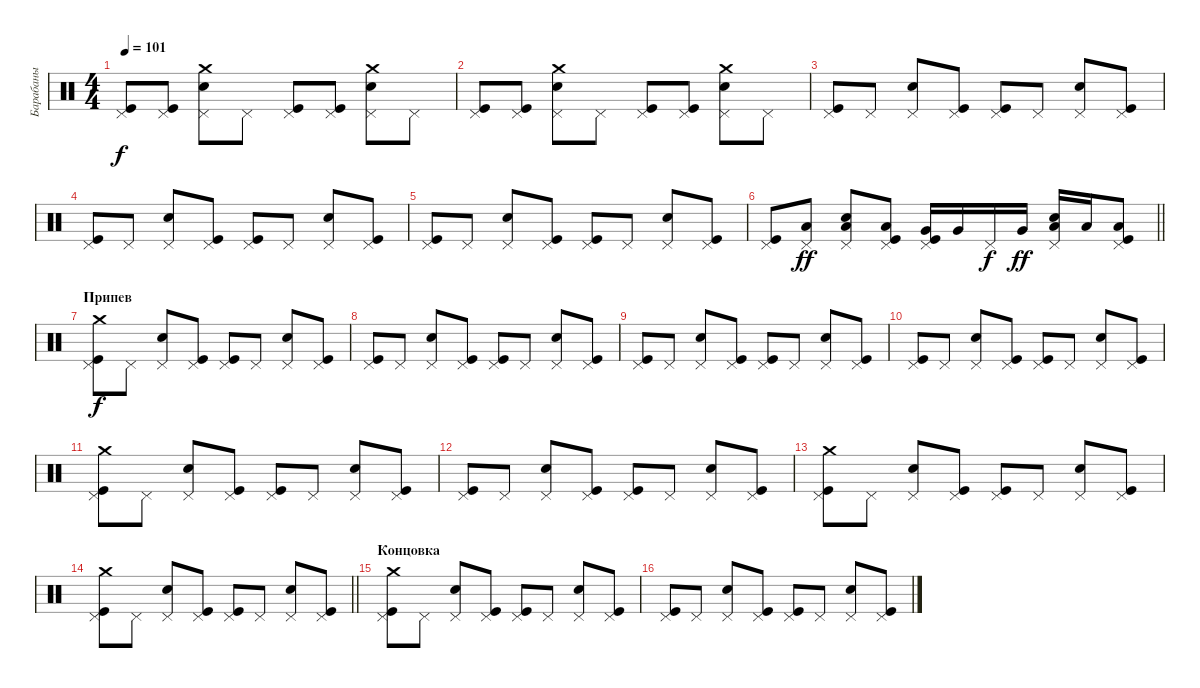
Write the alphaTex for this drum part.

\track ("Барабаны" "Барабаны") {instrument percussion}
\staff {score}
\articulation defaults
\ts (4 4)
\tempo 101
\clef neutral
\ks c
("Kick (hit)" "Pedal Hi-Hat (hit)").8{dy f} ("Kick (hit)" "Pedal Hi-Hat (hit)").8 ("Snare (hit) 2" "Pedal Hi-Hat (hit)" "Crash medium (hit)").8 "Pedal Hi-Hat (hit)".8 ("Kick (hit)" "Pedal Hi-Hat (hit)").8 ("Kick (hit)" "Pedal Hi-Hat (hit)").8 ("Snare (hit) 2" "Pedal Hi-Hat (hit)" "Crash medium (hit)").8 "Pedal Hi-Hat (hit)".8 |
("Kick (hit)" "Pedal Hi-Hat (hit)").8 ("Kick (hit)" "Pedal Hi-Hat (hit)").8 ("Snare (hit) 2" "Pedal Hi-Hat (hit)" "Crash medium (hit)").8 "Pedal Hi-Hat (hit)".8 ("Kick (hit)" "Pedal Hi-Hat (hit)").8 ("Kick (hit)" "Pedal Hi-Hat (hit)").8 ("Snare (hit) 2" "Pedal Hi-Hat (hit)" "Crash medium (hit)").8 "Pedal Hi-Hat (hit)".8 |
("Kick (hit)" "Pedal Hi-Hat (hit)").8 "Pedal Hi-Hat (hit)".8 ("Snare (hit) 2" "Pedal Hi-Hat (hit)").8 ("Kick (hit)" "Pedal Hi-Hat (hit)").8 ("Kick (hit)" "Pedal Hi-Hat (hit)").8 "Pedal Hi-Hat (hit)".8 ("Snare (hit) 2" "Pedal Hi-Hat (hit)").8 ("Kick (hit)" "Pedal Hi-Hat (hit)").8 |
("Kick (hit)" "Pedal Hi-Hat (hit)").8 "Pedal Hi-Hat (hit)".8 ("Snare (hit) 2" "Pedal Hi-Hat (hit)").8 ("Kick (hit)" "Pedal Hi-Hat (hit)").8 ("Kick (hit)" "Pedal Hi-Hat (hit)").8 "Pedal Hi-Hat (hit)".8 ("Snare (hit) 2" "Pedal Hi-Hat (hit)").8 ("Kick (hit)" "Pedal Hi-Hat (hit)").8 |
("Kick (hit)" "Pedal Hi-Hat (hit)").8 "Pedal Hi-Hat (hit)".8 ("Snare (hit) 2" "Pedal Hi-Hat (hit)").8 ("Kick (hit)" "Pedal Hi-Hat (hit)").8 ("Kick (hit)" "Pedal Hi-Hat (hit)").8 "Pedal Hi-Hat (hit)".8 ("Snare (hit) 2" "Pedal Hi-Hat (hit)").8 ("Kick (hit)" "Pedal Hi-Hat (hit)").8 |
\barLineRight lightlight
("Kick (hit)" "Pedal Hi-Hat (hit)").8 ("Pedal Hi-Hat (hit)" "Low Tom (hit)").8{dy ff} ("Snare (hit) 2" "Pedal Hi-Hat (hit)" "Low Tom (hit)").8 ("Kick (hit)" "Pedal Hi-Hat (hit)" "Low Tom (hit)").8 ("Kick (hit)" "Pedal Hi-Hat (hit)" "Very Low Tom (hit)").16 "Very Low Tom (hit)".16 "Pedal Hi-Hat (hit)".16{dy f} "Very Low Tom (hit)".16{dy ff} ("Snare (hit) 2" "Pedal Hi-Hat (hit)" "Low Tom (hit)").16 "Low Tom (hit)".16 ("Kick (hit)" "Pedal Hi-Hat (hit)" "Low Tom (hit)").8 |
\section ("" "Припев")
("Kick (hit)" "Pedal Hi-Hat (hit)" "Crash medium (hit)").8{dy f} "Pedal Hi-Hat (hit)".8 ("Snare (hit) 2" "Pedal Hi-Hat (hit)").8 ("Kick (hit)" "Pedal Hi-Hat (hit)").8 ("Kick (hit)" "Pedal Hi-Hat (hit)").8 "Pedal Hi-Hat (hit)".8 ("Snare (hit) 2" "Pedal Hi-Hat (hit)").8 ("Kick (hit)" "Pedal Hi-Hat (hit)").8 |
("Kick (hit)" "Pedal Hi-Hat (hit)").8 "Pedal Hi-Hat (hit)".8 ("Snare (hit) 2" "Pedal Hi-Hat (hit)").8 ("Kick (hit)" "Pedal Hi-Hat (hit)").8 ("Kick (hit)" "Pedal Hi-Hat (hit)").8 "Pedal Hi-Hat (hit)".8 ("Snare (hit) 2" "Pedal Hi-Hat (hit)").8 ("Kick (hit)" "Pedal Hi-Hat (hit)").8 |
("Kick (hit)" "Pedal Hi-Hat (hit)").8 "Pedal Hi-Hat (hit)".8 ("Snare (hit) 2" "Pedal Hi-Hat (hit)").8 ("Kick (hit)" "Pedal Hi-Hat (hit)").8 ("Kick (hit)" "Pedal Hi-Hat (hit)").8 "Pedal Hi-Hat (hit)".8 ("Snare (hit) 2" "Pedal Hi-Hat (hit)").8 ("Kick (hit)" "Pedal Hi-Hat (hit)").8 |
("Kick (hit)" "Pedal Hi-Hat (hit)").8 "Pedal Hi-Hat (hit)".8 ("Snare (hit) 2" "Pedal Hi-Hat (hit)").8 ("Kick (hit)" "Pedal Hi-Hat (hit)").8 ("Kick (hit)" "Pedal Hi-Hat (hit)").8 "Pedal Hi-Hat (hit)".8 ("Snare (hit) 2" "Pedal Hi-Hat (hit)").8 ("Kick (hit)" "Pedal Hi-Hat (hit)").8 |
("Kick (hit)" "Pedal Hi-Hat (hit)" "Crash medium (hit)").8 "Pedal Hi-Hat (hit)".8 ("Snare (hit) 2" "Pedal Hi-Hat (hit)").8 ("Kick (hit)" "Pedal Hi-Hat (hit)").8 ("Kick (hit)" "Pedal Hi-Hat (hit)").8 "Pedal Hi-Hat (hit)".8 ("Snare (hit) 2" "Pedal Hi-Hat (hit)").8 ("Kick (hit)" "Pedal Hi-Hat (hit)").8 |
("Kick (hit)" "Pedal Hi-Hat (hit)").8 "Pedal Hi-Hat (hit)".8 ("Snare (hit) 2" "Pedal Hi-Hat (hit)").8 ("Kick (hit)" "Pedal Hi-Hat (hit)").8 ("Kick (hit)" "Pedal Hi-Hat (hit)").8 "Pedal Hi-Hat (hit)".8 ("Snare (hit) 2" "Pedal Hi-Hat (hit)").8 ("Kick (hit)" "Pedal Hi-Hat (hit)").8 |
("Kick (hit)" "Pedal Hi-Hat (hit)" "Crash medium (hit)").8 "Pedal Hi-Hat (hit)".8 ("Snare (hit) 2" "Pedal Hi-Hat (hit)").8 ("Kick (hit)" "Pedal Hi-Hat (hit)").8 ("Kick (hit)" "Pedal Hi-Hat (hit)").8 "Pedal Hi-Hat (hit)".8 ("Snare (hit) 2" "Pedal Hi-Hat (hit)").8 ("Kick (hit)" "Pedal Hi-Hat (hit)").8 |
\barLineRight lightlight
("Kick (hit)" "Pedal Hi-Hat (hit)" "Crash medium (hit)").8 "Pedal Hi-Hat (hit)".8 ("Snare (hit) 2" "Pedal Hi-Hat (hit)").8 ("Kick (hit)" "Pedal Hi-Hat (hit)").8 ("Kick (hit)" "Pedal Hi-Hat (hit)").8 "Pedal Hi-Hat (hit)".8 ("Snare (hit) 2" "Pedal Hi-Hat (hit)").8 ("Kick (hit)" "Pedal Hi-Hat (hit)").8 |
\section ("" "Концовка")
("Kick (hit)" "Pedal Hi-Hat (hit)" "Crash medium (hit)").8 "Pedal Hi-Hat (hit)".8 ("Snare (hit) 2" "Pedal Hi-Hat (hit)").8 ("Kick (hit)" "Pedal Hi-Hat (hit)").8 ("Kick (hit)" "Pedal Hi-Hat (hit)").8 "Pedal Hi-Hat (hit)".8 ("Snare (hit) 2" "Pedal Hi-Hat (hit)").8 ("Kick (hit)" "Pedal Hi-Hat (hit)").8 |
("Kick (hit)" "Pedal Hi-Hat (hit)").8 "Pedal Hi-Hat (hit)".8 ("Snare (hit) 2" "Pedal Hi-Hat (hit)").8 ("Kick (hit)" "Pedal Hi-Hat (hit)").8 ("Kick (hit)" "Pedal Hi-Hat (hit)").8 "Pedal Hi-Hat (hit)".8 ("Snare (hit) 2" "Pedal Hi-Hat (hit)").8 ("Kick (hit)" "Pedal Hi-Hat (hit)").8
